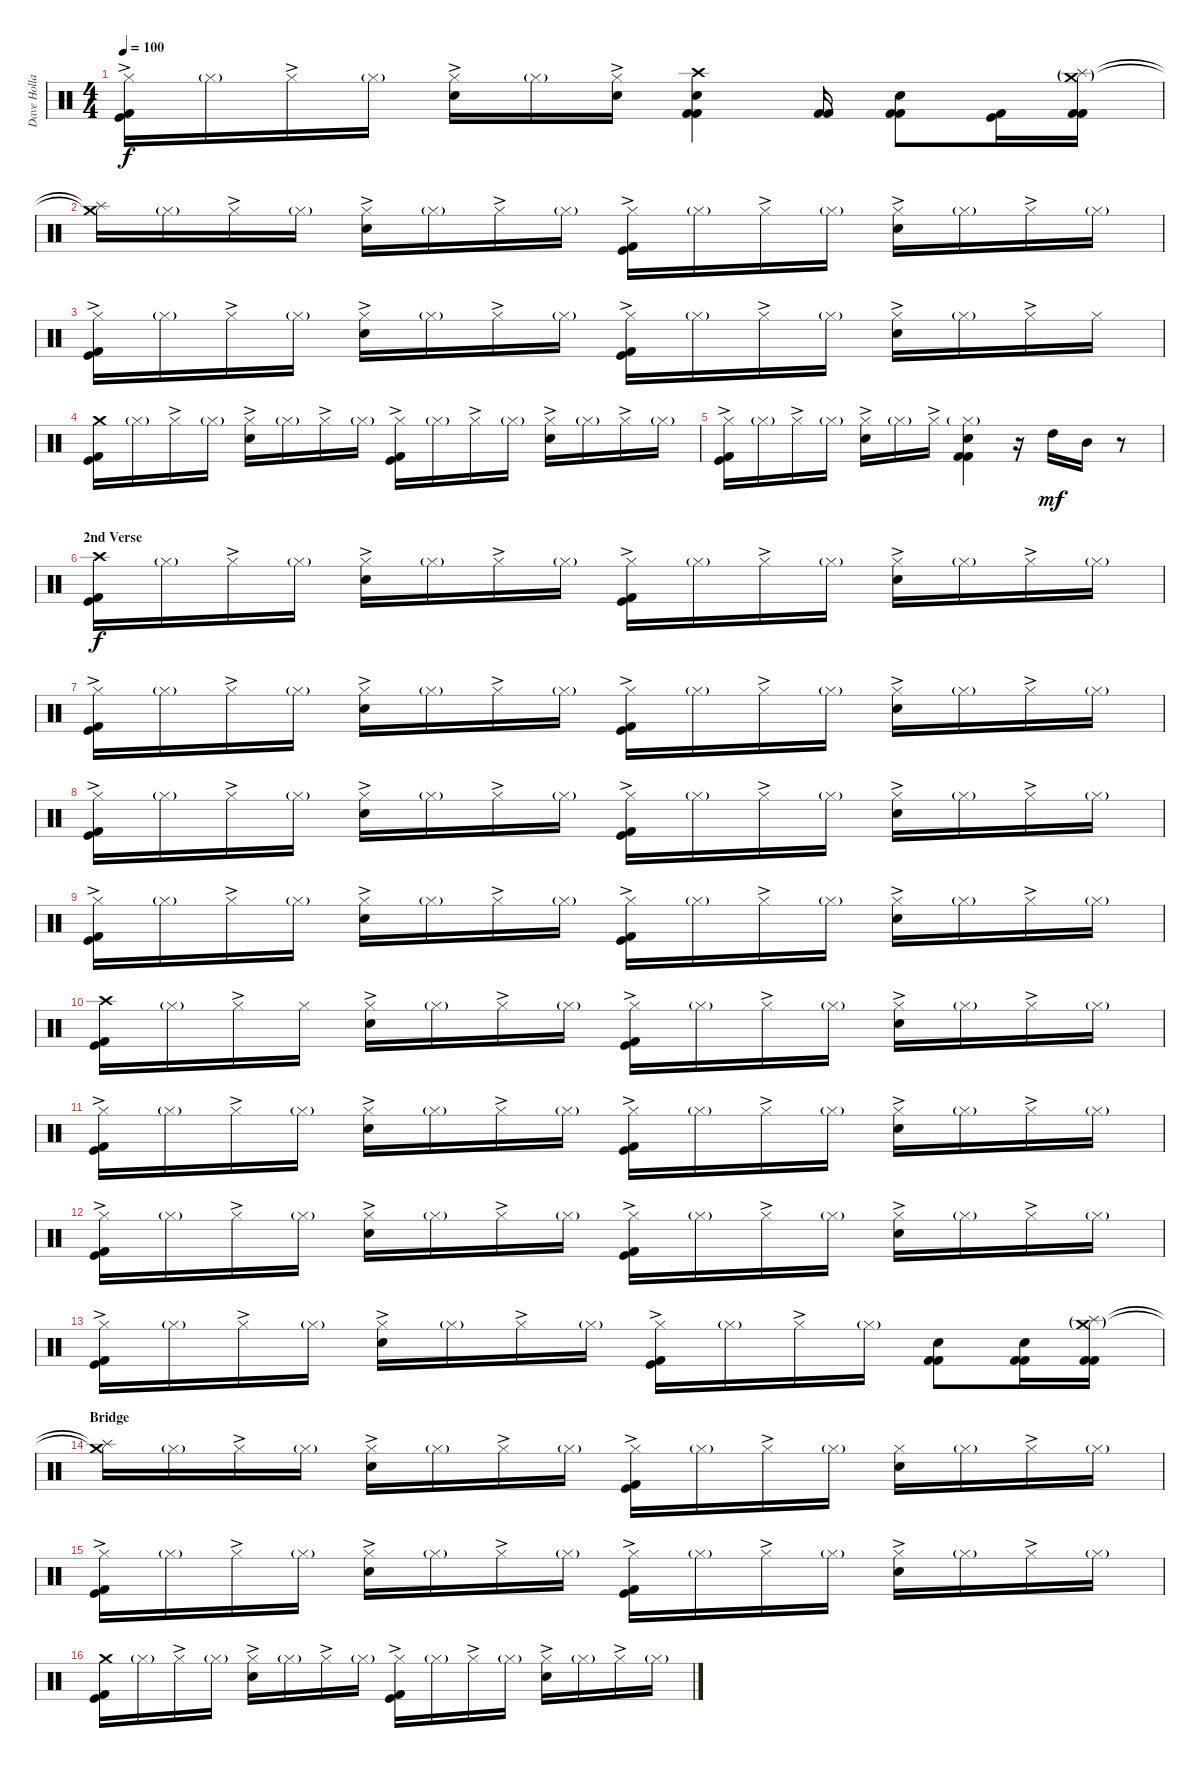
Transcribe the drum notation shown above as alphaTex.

\track ("Dave Holland" "Dave Holla") {instrument percussion}
\staff {score}
\articulation defaults
\ts (4 4)
\tempo 100
\clef neutral
\ks c
("Hi-Hat (closed)"{ac} "Kick (hit)" "Kick (hit) 2").16{dy f} "Hi-Hat (closed)"{g}.16 "Hi-Hat (closed)"{ac}.16 "Hi-Hat (closed)"{g}.16 ("Hi-Hat (closed)"{ac} "Electric Snare (hit)").16 "Hi-Hat (closed)"{g}.16 ("Hi-Hat (closed)"{ac} "Electric Snare (hit)").16 ("Crash high (hit)" "Electric Snare (hit)" "Kick (hit) 2" "Kick (hit) 2").4 ("Kick (hit) 2" "Kick (hit) 2").16 ("Electric Snare (hit)" "Kick (hit) 2" "Kick (hit) 2").8 ("Kick (hit)" "Kick (hit) 2").16 ("Crash medium (hit)"{g} "Splash (hit)"{g} "Kick (hit) 2" "Kick (hit) 2").16 |
("Crash medium (hit)"{t} "Splash (hit)"{t}).16 "Hi-Hat (closed)"{g}.16 "Hi-Hat (closed)"{ac}.16 "Hi-Hat (closed)"{g}.16 ("Hi-Hat (closed)"{ac} "Electric Snare (hit)").16 "Hi-Hat (closed)"{g}.16 "Hi-Hat (closed)"{ac}.16 "Hi-Hat (closed)"{g}.16 ("Hi-Hat (closed)"{ac} "Kick (hit)" "Kick (hit) 2").16 "Hi-Hat (closed)"{g}.16 "Hi-Hat (closed)"{ac}.16 "Hi-Hat (closed)"{g}.16 ("Hi-Hat (closed)"{ac} "Electric Snare (hit)").16 "Hi-Hat (closed)"{g}.16 "Hi-Hat (closed)"{ac}.16 "Hi-Hat (closed)"{g}.16 |
("Hi-Hat (closed)"{ac} "Kick (hit)" "Kick (hit) 2").16 "Hi-Hat (closed)"{g}.16 "Hi-Hat (closed)"{ac}.16 "Hi-Hat (closed)"{g}.16 ("Hi-Hat (closed)"{ac} "Electric Snare (hit)").16 "Hi-Hat (closed)"{g}.16 "Hi-Hat (closed)"{ac}.16 "Hi-Hat (closed)"{g}.16 ("Hi-Hat (closed)"{ac} "Kick (hit)" "Kick (hit) 2").16 "Hi-Hat (closed)"{g}.16 "Hi-Hat (closed)"{ac}.16 "Hi-Hat (closed)"{g}.16 ("Hi-Hat (closed)"{ac} "Electric Snare (hit)").16 "Hi-Hat (closed)"{g}.16 "Hi-Hat (closed)"{ac}.16 "Hi-Hat (closed)".16 |
("Crash medium (hit)" "Kick (hit)" "Kick (hit) 2").16 "Hi-Hat (closed)"{g}.16 "Hi-Hat (closed)"{ac}.16 "Hi-Hat (closed)"{g}.16 ("Hi-Hat (closed)"{ac} "Electric Snare (hit)").16 "Hi-Hat (closed)"{g}.16 "Hi-Hat (closed)"{ac}.16 "Hi-Hat (closed)"{g}.16 ("Hi-Hat (closed)"{ac} "Kick (hit)" "Kick (hit) 2").16 "Hi-Hat (closed)"{g}.16 "Hi-Hat (closed)"{ac}.16 "Hi-Hat (closed)"{g}.16 ("Hi-Hat (closed)"{ac} "Electric Snare (hit)").16 "Hi-Hat (closed)"{g}.16 "Hi-Hat (closed)"{ac}.16 "Hi-Hat (closed)"{g}.16 |
("Hi-Hat (closed)"{ac} "Kick (hit)" "Kick (hit) 2").16 "Hi-Hat (closed)"{g}.16 "Hi-Hat (closed)"{ac}.16 "Hi-Hat (closed)"{g}.16 ("Hi-Hat (closed)"{ac} "Electric Snare (hit)").16 "Hi-Hat (closed)"{g}.16 "Hi-Hat (closed)"{ac}.16 ("Hi-Hat (closed)"{g} "Electric Snare (hit)" "Kick (hit) 2" "Kick (hit) 2").4 r.16 "High Tom (hit)".16{dy mf} "Mid Tom (hit)".16 r.8 |
\section ("" "2nd Verse")
("Crash high (hit)" "Kick (hit)" "Kick (hit) 2").16{dy f} "Hi-Hat (closed)"{g}.16 "Hi-Hat (closed)"{ac}.16 "Hi-Hat (closed)"{g}.16 ("Hi-Hat (closed)"{ac} "Electric Snare (hit)").16 "Hi-Hat (closed)"{g}.16 "Hi-Hat (closed)"{ac}.16 "Hi-Hat (closed)"{g}.16 ("Hi-Hat (closed)"{ac} "Kick (hit)" "Kick (hit) 2").16 "Hi-Hat (closed)"{g}.16 "Hi-Hat (closed)"{ac}.16 "Hi-Hat (closed)"{g}.16 ("Hi-Hat (closed)"{ac} "Electric Snare (hit)").16 "Hi-Hat (closed)"{g}.16 "Hi-Hat (closed)"{ac}.16 "Hi-Hat (closed)"{g}.16 |
("Hi-Hat (closed)"{ac} "Kick (hit)" "Kick (hit) 2").16 "Hi-Hat (closed)"{g}.16 "Hi-Hat (closed)"{ac}.16 "Hi-Hat (closed)"{g}.16 ("Hi-Hat (closed)"{ac} "Electric Snare (hit)").16 "Hi-Hat (closed)"{g}.16 "Hi-Hat (closed)"{ac}.16 "Hi-Hat (closed)"{g}.16 ("Hi-Hat (closed)"{ac} "Kick (hit)" "Kick (hit) 2").16 "Hi-Hat (closed)"{g}.16 "Hi-Hat (closed)"{ac}.16 "Hi-Hat (closed)"{g}.16 ("Hi-Hat (closed)"{ac} "Electric Snare (hit)").16 "Hi-Hat (closed)"{g}.16 "Hi-Hat (closed)"{ac}.16 "Hi-Hat (closed)"{g}.16 |
("Hi-Hat (closed)"{ac} "Kick (hit)" "Kick (hit) 2").16 "Hi-Hat (closed)"{g}.16 "Hi-Hat (closed)"{ac}.16 "Hi-Hat (closed)"{g}.16 ("Hi-Hat (closed)"{ac} "Electric Snare (hit)").16 "Hi-Hat (closed)"{g}.16 "Hi-Hat (closed)"{ac}.16 "Hi-Hat (closed)"{g}.16 ("Hi-Hat (closed)"{ac} "Kick (hit)" "Kick (hit) 2").16 "Hi-Hat (closed)"{g}.16 "Hi-Hat (closed)"{ac}.16 "Hi-Hat (closed)"{g}.16 ("Hi-Hat (closed)"{ac} "Electric Snare (hit)").16 "Hi-Hat (closed)"{g}.16 "Hi-Hat (closed)"{ac}.16 "Hi-Hat (closed)"{g}.16 |
("Hi-Hat (closed)"{ac} "Kick (hit)" "Kick (hit) 2").16 "Hi-Hat (closed)"{g}.16 "Hi-Hat (closed)"{ac}.16 "Hi-Hat (closed)"{g}.16 ("Hi-Hat (closed)"{ac} "Electric Snare (hit)").16 "Hi-Hat (closed)"{g}.16 "Hi-Hat (closed)"{ac}.16 "Hi-Hat (closed)"{g}.16 ("Hi-Hat (closed)"{ac} "Kick (hit)" "Kick (hit) 2").16 "Hi-Hat (closed)"{g}.16 "Hi-Hat (closed)"{ac}.16 "Hi-Hat (closed)"{g}.16 ("Hi-Hat (closed)"{ac} "Electric Snare (hit)").16 "Hi-Hat (closed)"{g}.16 "Hi-Hat (closed)"{ac}.16 "Hi-Hat (closed)"{g}.16 |
("Crash high (hit)" "Kick (hit)" "Kick (hit) 2").16 "Hi-Hat (closed)"{g}.16 "Hi-Hat (closed)"{ac}.16 "Hi-Hat (closed)".16 ("Hi-Hat (closed)"{ac} "Electric Snare (hit)").16 "Hi-Hat (closed)"{g}.16 "Hi-Hat (closed)"{ac}.16 "Hi-Hat (closed)"{g}.16 ("Hi-Hat (closed)"{ac} "Kick (hit)" "Kick (hit) 2").16 "Hi-Hat (closed)"{g}.16 "Hi-Hat (closed)"{ac}.16 "Hi-Hat (closed)"{g}.16 ("Hi-Hat (closed)"{ac} "Electric Snare (hit)").16 "Hi-Hat (closed)"{g}.16 "Hi-Hat (closed)"{ac}.16 "Hi-Hat (closed)"{g}.16 |
("Hi-Hat (closed)"{ac} "Kick (hit)" "Kick (hit) 2").16 "Hi-Hat (closed)"{g}.16 "Hi-Hat (closed)"{ac}.16 "Hi-Hat (closed)"{g}.16 ("Hi-Hat (closed)"{ac} "Electric Snare (hit)").16 "Hi-Hat (closed)"{g}.16 "Hi-Hat (closed)"{ac}.16 "Hi-Hat (closed)"{g}.16 ("Hi-Hat (closed)"{ac} "Kick (hit)" "Kick (hit) 2").16 "Hi-Hat (closed)"{g}.16 "Hi-Hat (closed)"{ac}.16 "Hi-Hat (closed)"{g}.16 ("Hi-Hat (closed)"{ac} "Electric Snare (hit)").16 "Hi-Hat (closed)"{g}.16 "Hi-Hat (closed)"{ac}.16 "Hi-Hat (closed)"{g}.16 |
("Hi-Hat (closed)"{ac} "Kick (hit)" "Kick (hit) 2").16 "Hi-Hat (closed)"{g}.16 "Hi-Hat (closed)"{ac}.16 "Hi-Hat (closed)"{g}.16 ("Hi-Hat (closed)"{ac} "Electric Snare (hit)").16 "Hi-Hat (closed)"{g}.16 "Hi-Hat (closed)"{ac}.16 "Hi-Hat (closed)"{g}.16 ("Hi-Hat (closed)"{ac} "Kick (hit)" "Kick (hit) 2").16 "Hi-Hat (closed)"{g}.16 "Hi-Hat (closed)"{ac}.16 "Hi-Hat (closed)"{g}.16 ("Hi-Hat (closed)"{ac} "Electric Snare (hit)").16 "Hi-Hat (closed)"{g}.16 "Hi-Hat (closed)"{ac}.16 "Hi-Hat (closed)"{g}.16 |
("Hi-Hat (closed)"{ac} "Kick (hit)" "Kick (hit) 2").16 "Hi-Hat (closed)"{g}.16 "Hi-Hat (closed)"{ac}.16 "Hi-Hat (closed)"{g}.16 ("Hi-Hat (closed)"{ac} "Electric Snare (hit)").16 "Hi-Hat (closed)"{g}.16 "Hi-Hat (closed)"{ac}.16 "Hi-Hat (closed)"{g}.16 ("Hi-Hat (closed)"{ac} "Kick (hit)" "Kick (hit) 2").16 "Hi-Hat (closed)"{g}.16 "Hi-Hat (closed)"{ac}.16 "Hi-Hat (closed)"{g}.16 ("Electric Snare (hit)" "Kick (hit) 2" "Kick (hit) 2").8 ("Electric Snare (hit)" "Kick (hit) 2" "Kick (hit) 2").16 ("Crash medium (hit)"{g} "Splash (hit)"{g} "Kick (hit) 2" "Kick (hit) 2").16 |
\section ("" "Bridge")
("Crash medium (hit)"{t} "Splash (hit)"{t}).16 "Hi-Hat (closed)"{g}.16 "Hi-Hat (closed)"{ac}.16 "Hi-Hat (closed)"{g}.16 ("Hi-Hat (closed)"{ac} "Electric Snare (hit)").16 "Hi-Hat (closed)"{g}.16 "Hi-Hat (closed)"{ac}.16 "Hi-Hat (closed)"{g}.16 ("Hi-Hat (closed)"{ac} "Kick (hit)" "Kick (hit) 2").16 "Hi-Hat (closed)"{g}.16 "Hi-Hat (closed)"{ac}.16 "Hi-Hat (closed)"{g}.16 ("Hi-Hat (closed)" "Electric Snare (hit)").16 "Hi-Hat (closed)"{g}.16 "Hi-Hat (closed)"{ac}.16 "Hi-Hat (closed)"{g}.16 |
("Hi-Hat (closed)"{ac} "Kick (hit)" "Kick (hit) 2").16 "Hi-Hat (closed)"{g}.16 "Hi-Hat (closed)"{ac}.16 "Hi-Hat (closed)"{g}.16 ("Hi-Hat (closed)"{ac} "Electric Snare (hit)").16 "Hi-Hat (closed)"{g}.16 "Hi-Hat (closed)"{ac}.16 "Hi-Hat (closed)"{g}.16 ("Hi-Hat (closed)"{ac} "Kick (hit)" "Kick (hit) 2").16 "Hi-Hat (closed)"{g}.16 "Hi-Hat (closed)"{ac}.16 "Hi-Hat (closed)"{g}.16 ("Hi-Hat (closed)"{ac} "Electric Snare (hit)").16 "Hi-Hat (closed)"{g}.16 "Hi-Hat (closed)"{ac}.16 "Hi-Hat (closed)"{g}.16 |
("Crash medium (hit)" "Kick (hit)" "Kick (hit) 2").16 "Hi-Hat (closed)"{g}.16 "Hi-Hat (closed)"{ac}.16 "Hi-Hat (closed)"{g}.16 ("Hi-Hat (closed)"{ac} "Electric Snare (hit)").16 "Hi-Hat (closed)"{g}.16 "Hi-Hat (closed)"{ac}.16 "Hi-Hat (closed)"{g}.16 ("Hi-Hat (closed)"{ac} "Kick (hit)" "Kick (hit) 2").16 "Hi-Hat (closed)"{g}.16 "Hi-Hat (closed)"{ac}.16 "Hi-Hat (closed)"{g}.16 ("Hi-Hat (closed)"{ac} "Electric Snare (hit)").16 "Hi-Hat (closed)"{g}.16 "Hi-Hat (closed)"{ac}.16 "Hi-Hat (closed)"{g}.16
